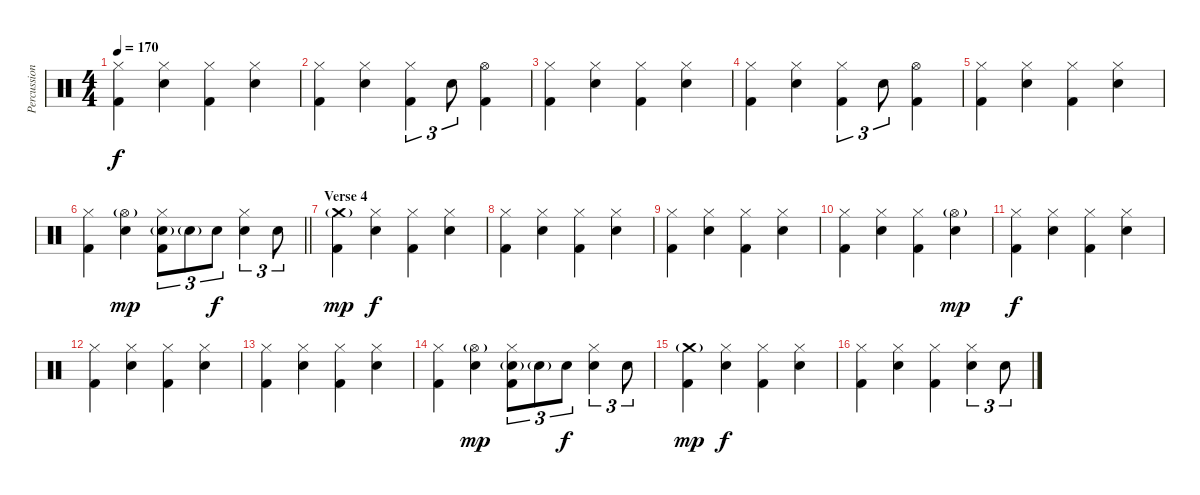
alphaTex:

\track ("Percussion" "Percussion") {instrument percussion}
\staff {score}
\articulation defaults
\ts (4 4)
\tempo 170
\clef neutral
\ks c
("Hi-Hat (closed)" "Kick (hit) 2").4{dy f} ("Hi-Hat (closed)" "Snare (hit) 2").4 ("Hi-Hat (closed)" "Kick (hit) 2").4 ("Hi-Hat (closed)" "Snare (hit) 2").4 |
("Hi-Hat (closed)" "Kick (hit) 2").4 ("Hi-Hat (closed)" "Snare (hit) 2").4 ("Hi-Hat (closed)" "Kick (hit) 2").4{tu (3 2)} "Snare (hit) 2".8{tu (3 2)} ("Hi-Hat (open)" "Kick (hit) 2").4 |
("Hi-Hat (closed)" "Kick (hit) 2").4 ("Hi-Hat (closed)" "Snare (hit) 2").4 ("Hi-Hat (closed)" "Kick (hit) 2").4 ("Hi-Hat (closed)" "Snare (hit) 2").4 |
("Hi-Hat (closed)" "Kick (hit) 2").4 ("Hi-Hat (closed)" "Snare (hit) 2").4 ("Hi-Hat (closed)" "Kick (hit) 2").4{tu (3 2)} "Snare (hit) 2".8{tu (3 2)} ("Hi-Hat (open)" "Kick (hit) 2").4 |
("Hi-Hat (closed)" "Kick (hit) 2").4 ("Hi-Hat (closed)" "Snare (hit) 2").4 ("Hi-Hat (closed)" "Kick (hit) 2").4 ("Hi-Hat (closed)" "Snare (hit) 2").4 |
\barLineRight lightlight
("Hi-Hat (closed)" "Kick (hit) 2").4 ("Hi-Hat (open)"{g} "Snare (hit) 2").4{dy mp} ("Hi-Hat (closed)" "Snare (hit) 2"{g} "Kick (hit) 2").8{tu (3 2)} "Snare (hit) 2"{g}.8{tu (3 2)} "Snare (hit) 2".8{tu (3 2) dy f} ("Hi-Hat (closed)" "Snare (hit) 2").4{tu (3 2)} "Snare (hit) 2".8{tu (3 2)} |
\section ("" "Verse 4")
("Crash medium (hit)"{g} "Kick (hit) 2").4{dy mp} ("Hi-Hat (closed)" "Snare (hit) 2").4{dy f} ("Hi-Hat (closed)" "Kick (hit) 2").4 ("Hi-Hat (closed)" "Snare (hit) 2").4 |
("Hi-Hat (closed)" "Kick (hit) 2").4 ("Hi-Hat (closed)" "Snare (hit) 2").4 ("Hi-Hat (closed)" "Kick (hit) 2").4 ("Hi-Hat (closed)" "Snare (hit) 2").4 |
("Hi-Hat (closed)" "Kick (hit) 2").4 ("Hi-Hat (closed)" "Snare (hit) 2").4 ("Hi-Hat (closed)" "Kick (hit) 2").4 ("Hi-Hat (closed)" "Snare (hit) 2").4 |
("Hi-Hat (closed)" "Kick (hit) 2").4 ("Hi-Hat (closed)" "Snare (hit) 2").4 ("Hi-Hat (closed)" "Kick (hit) 2").4 ("Hi-Hat (open)"{g} "Snare (hit) 2").4{dy mp} |
("Hi-Hat (closed)" "Kick (hit) 2").4{dy f} ("Hi-Hat (closed)" "Snare (hit) 2").4 ("Hi-Hat (closed)" "Kick (hit) 2").4 ("Hi-Hat (closed)" "Snare (hit) 2").4 |
("Hi-Hat (closed)" "Kick (hit) 2").4 ("Hi-Hat (closed)" "Snare (hit) 2").4 ("Hi-Hat (closed)" "Kick (hit) 2").4 ("Hi-Hat (closed)" "Snare (hit) 2").4 |
("Hi-Hat (closed)" "Kick (hit) 2").4 ("Hi-Hat (closed)" "Snare (hit) 2").4 ("Hi-Hat (closed)" "Kick (hit) 2").4 ("Hi-Hat (closed)" "Snare (hit) 2").4 |
("Hi-Hat (closed)" "Kick (hit) 2").4 ("Hi-Hat (open)"{g} "Snare (hit) 2").4{dy mp} ("Hi-Hat (closed)" "Snare (hit) 2"{g} "Kick (hit) 2").8{tu (3 2)} "Snare (hit) 2"{g}.8{tu (3 2)} "Snare (hit) 2".8{tu (3 2) dy f} ("Hi-Hat (closed)" "Snare (hit) 2").4{tu (3 2)} "Snare (hit) 2".8{tu (3 2)} |
("Crash medium (hit)"{g} "Kick (hit) 2").4{dy mp} ("Hi-Hat (closed)" "Snare (hit) 2").4{dy f} ("Hi-Hat (closed)" "Kick (hit) 2").4 ("Hi-Hat (closed)" "Snare (hit) 2").4 |
("Hi-Hat (closed)" "Kick (hit) 2").4 ("Hi-Hat (closed)" "Snare (hit) 2").4 ("Hi-Hat (closed)" "Kick (hit) 2").4 ("Hi-Hat (closed)" "Snare (hit) 2").4{tu (3 2)} "Snare (hit) 2".8{tu (3 2)}
